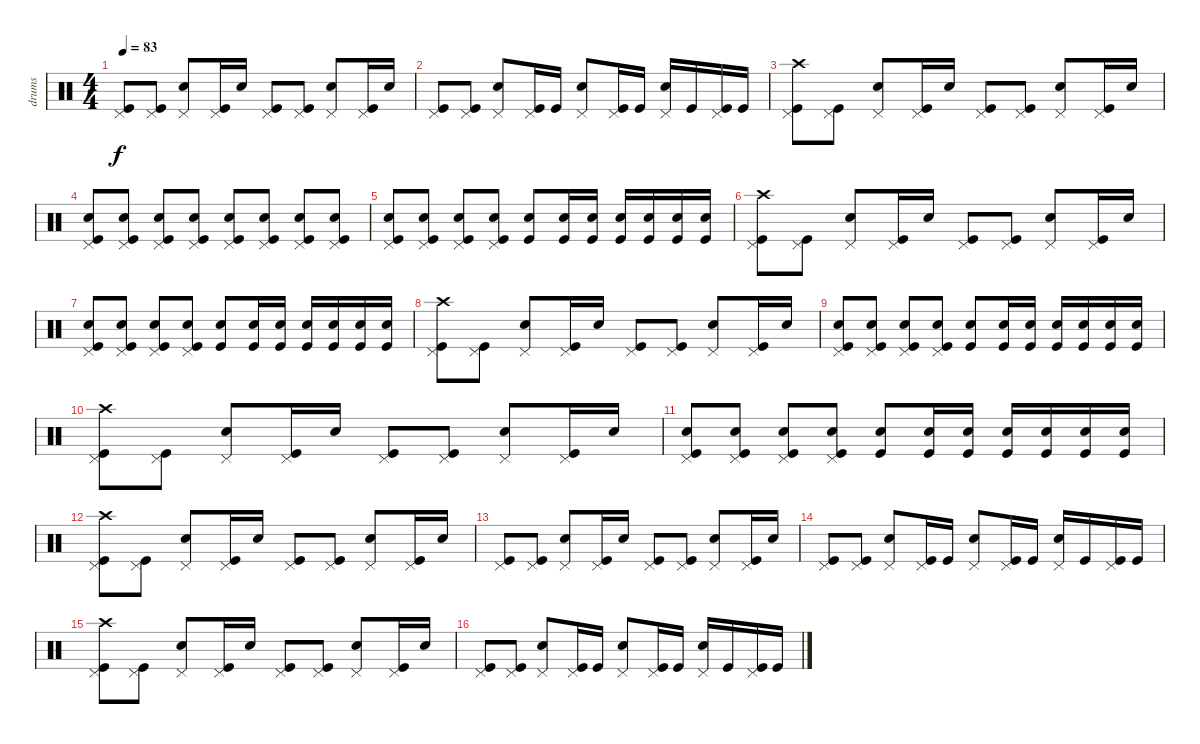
\track ("drums" "drums") {instrument percussion}
\staff {score}
\articulation defaults
\ts (4 4)
\tempo 83
\clef neutral
\ks c
("Pedal Hi-Hat (hit)" "Kick (hit)").8{dy f} ("Pedal Hi-Hat (hit)" "Kick (hit)").8 ("Pedal Hi-Hat (hit)" "Snare (hit) 2").8 ("Pedal Hi-Hat (hit)" "Kick (hit)").16 "Snare (hit) 2".16 ("Pedal Hi-Hat (hit)" "Kick (hit)").8 ("Pedal Hi-Hat (hit)" "Kick (hit)").8 ("Pedal Hi-Hat (hit)" "Snare (hit) 2").8 ("Pedal Hi-Hat (hit)" "Kick (hit)").16 "Snare (hit) 2".16 |
("Pedal Hi-Hat (hit)" "Kick (hit)").8 ("Pedal Hi-Hat (hit)" "Kick (hit)").8 ("Pedal Hi-Hat (hit)" "Snare (hit) 2").8 ("Pedal Hi-Hat (hit)" "Kick (hit)").16 "Kick (hit)".16 ("Pedal Hi-Hat (hit)" "Snare (hit) 2").8 ("Pedal Hi-Hat (hit)" "Kick (hit)").16 "Kick (hit)".16 ("Pedal Hi-Hat (hit)" "Snare (hit) 2").16 "Kick (hit)".16 ("Pedal Hi-Hat (hit)" "Kick (hit)").16 "Kick (hit)".16 |
("Crash high (hit)" "Pedal Hi-Hat (hit)" "Kick (hit)").8 ("Pedal Hi-Hat (hit)" "Kick (hit)").8 ("Pedal Hi-Hat (hit)" "Snare (hit) 2").8 ("Pedal Hi-Hat (hit)" "Kick (hit)").16 "Snare (hit) 2".16 ("Pedal Hi-Hat (hit)" "Kick (hit)").8 ("Pedal Hi-Hat (hit)" "Kick (hit)").8 ("Pedal Hi-Hat (hit)" "Snare (hit) 2").8 ("Pedal Hi-Hat (hit)" "Kick (hit)").16 "Snare (hit) 2".16 |
("Kick (hit)" "Snare (hit) 2" "Pedal Hi-Hat (hit)").8 ("Kick (hit)" "Snare (hit) 2" "Pedal Hi-Hat (hit)").8 ("Kick (hit)" "Pedal Hi-Hat (hit)" "Snare (hit) 2").8 ("Kick (hit)" "Pedal Hi-Hat (hit)" "Snare (hit) 2").8 ("Kick (hit)" "Snare (hit) 2" "Pedal Hi-Hat (hit)").8 ("Kick (hit)" "Snare (hit) 2" "Pedal Hi-Hat (hit)").8 ("Kick (hit)" "Snare (hit) 2" "Pedal Hi-Hat (hit)").8 ("Kick (hit)" "Snare (hit) 2" "Pedal Hi-Hat (hit)").8 |
("Kick (hit)" "Snare (hit) 2" "Pedal Hi-Hat (hit)").8 ("Kick (hit)" "Snare (hit) 2" "Pedal Hi-Hat (hit)").8 ("Kick (hit)" "Pedal Hi-Hat (hit)" "Snare (hit) 2").8 ("Kick (hit)" "Snare (hit) 2" "Pedal Hi-Hat (hit)").8 ("Kick (hit)" "Snare (hit) 2").8 ("Kick (hit)" "Snare (hit) 2").16 ("Kick (hit)" "Snare (hit) 2").16 ("Kick (hit)" "Snare (hit) 2").16 ("Kick (hit)" "Snare (hit) 2").16 ("Kick (hit)" "Snare (hit) 2").16 ("Kick (hit)" "Snare (hit) 2").16 |
("Crash high (hit)" "Pedal Hi-Hat (hit)" "Kick (hit)").8 ("Pedal Hi-Hat (hit)" "Kick (hit)").8 ("Pedal Hi-Hat (hit)" "Snare (hit) 2").8 ("Pedal Hi-Hat (hit)" "Kick (hit)").16 "Snare (hit) 2".16 ("Pedal Hi-Hat (hit)" "Kick (hit)").8 ("Pedal Hi-Hat (hit)" "Kick (hit)").8 ("Pedal Hi-Hat (hit)" "Snare (hit) 2").8 ("Pedal Hi-Hat (hit)" "Kick (hit)").16 "Snare (hit) 2".16 |
("Kick (hit)" "Snare (hit) 2" "Pedal Hi-Hat (hit)").8 ("Kick (hit)" "Snare (hit) 2" "Pedal Hi-Hat (hit)").8 ("Kick (hit)" "Pedal Hi-Hat (hit)" "Snare (hit) 2").8 ("Kick (hit)" "Snare (hit) 2" "Pedal Hi-Hat (hit)").8 ("Kick (hit)" "Snare (hit) 2").8 ("Kick (hit)" "Snare (hit) 2").16 ("Kick (hit)" "Snare (hit) 2").16 ("Kick (hit)" "Snare (hit) 2").16 ("Kick (hit)" "Snare (hit) 2").16 ("Kick (hit)" "Snare (hit) 2").16 ("Kick (hit)" "Snare (hit) 2").16 |
("Crash high (hit)" "Pedal Hi-Hat (hit)" "Kick (hit)").8 ("Pedal Hi-Hat (hit)" "Kick (hit)").8 ("Pedal Hi-Hat (hit)" "Snare (hit) 2").8 ("Pedal Hi-Hat (hit)" "Kick (hit)").16 "Snare (hit) 2".16 ("Pedal Hi-Hat (hit)" "Kick (hit)").8 ("Pedal Hi-Hat (hit)" "Kick (hit)").8 ("Pedal Hi-Hat (hit)" "Snare (hit) 2").8 ("Pedal Hi-Hat (hit)" "Kick (hit)").16 "Snare (hit) 2".16 |
("Kick (hit)" "Snare (hit) 2" "Pedal Hi-Hat (hit)").8 ("Kick (hit)" "Snare (hit) 2" "Pedal Hi-Hat (hit)").8 ("Kick (hit)" "Pedal Hi-Hat (hit)" "Snare (hit) 2").8 ("Kick (hit)" "Snare (hit) 2" "Pedal Hi-Hat (hit)").8 ("Kick (hit)" "Snare (hit) 2").8 ("Kick (hit)" "Snare (hit) 2").16 ("Kick (hit)" "Snare (hit) 2").16 ("Kick (hit)" "Snare (hit) 2").16 ("Kick (hit)" "Snare (hit) 2").16 ("Kick (hit)" "Snare (hit) 2").16 ("Kick (hit)" "Snare (hit) 2").16 |
("Crash high (hit)" "Pedal Hi-Hat (hit)" "Kick (hit)").8 ("Pedal Hi-Hat (hit)" "Kick (hit)").8 ("Pedal Hi-Hat (hit)" "Snare (hit) 2").8 ("Pedal Hi-Hat (hit)" "Kick (hit)").16 "Snare (hit) 2".16 ("Pedal Hi-Hat (hit)" "Kick (hit)").8 ("Pedal Hi-Hat (hit)" "Kick (hit)").8 ("Pedal Hi-Hat (hit)" "Snare (hit) 2").8 ("Pedal Hi-Hat (hit)" "Kick (hit)").16 "Snare (hit) 2".16 |
("Kick (hit)" "Snare (hit) 2" "Pedal Hi-Hat (hit)").8 ("Kick (hit)" "Snare (hit) 2" "Pedal Hi-Hat (hit)").8 ("Kick (hit)" "Pedal Hi-Hat (hit)" "Snare (hit) 2").8 ("Kick (hit)" "Snare (hit) 2" "Pedal Hi-Hat (hit)").8 ("Kick (hit)" "Snare (hit) 2").8 ("Kick (hit)" "Snare (hit) 2").16 ("Kick (hit)" "Snare (hit) 2").16 ("Kick (hit)" "Snare (hit) 2").16 ("Kick (hit)" "Snare (hit) 2").16 ("Kick (hit)" "Snare (hit) 2").16 ("Kick (hit)" "Snare (hit) 2").16 |
("Crash high (hit)" "Pedal Hi-Hat (hit)" "Kick (hit)").8 ("Pedal Hi-Hat (hit)" "Kick (hit)").8 ("Pedal Hi-Hat (hit)" "Snare (hit) 2").8 ("Pedal Hi-Hat (hit)" "Kick (hit)").16 "Snare (hit) 2".16 ("Pedal Hi-Hat (hit)" "Kick (hit)").8 ("Pedal Hi-Hat (hit)" "Kick (hit)").8 ("Pedal Hi-Hat (hit)" "Snare (hit) 2").8 ("Pedal Hi-Hat (hit)" "Kick (hit)").16 "Snare (hit) 2".16 |
("Pedal Hi-Hat (hit)" "Kick (hit)").8 ("Pedal Hi-Hat (hit)" "Kick (hit)").8 ("Pedal Hi-Hat (hit)" "Snare (hit) 2").8 ("Pedal Hi-Hat (hit)" "Kick (hit)").16 "Snare (hit) 2".16 ("Pedal Hi-Hat (hit)" "Kick (hit)").8 ("Pedal Hi-Hat (hit)" "Kick (hit)").8 ("Pedal Hi-Hat (hit)" "Snare (hit) 2").8 ("Pedal Hi-Hat (hit)" "Kick (hit)").16 "Snare (hit) 2".16 |
("Pedal Hi-Hat (hit)" "Kick (hit)").8 ("Pedal Hi-Hat (hit)" "Kick (hit)").8 ("Pedal Hi-Hat (hit)" "Snare (hit) 2").8 ("Pedal Hi-Hat (hit)" "Kick (hit)").16 "Kick (hit)".16 ("Pedal Hi-Hat (hit)" "Snare (hit) 2").8 ("Pedal Hi-Hat (hit)" "Kick (hit)").16 "Kick (hit)".16 ("Pedal Hi-Hat (hit)" "Snare (hit) 2").16 "Kick (hit)".16 ("Pedal Hi-Hat (hit)" "Kick (hit)").16 "Kick (hit)".16 |
("Crash high (hit)" "Pedal Hi-Hat (hit)" "Kick (hit)").8 ("Pedal Hi-Hat (hit)" "Kick (hit)").8 ("Pedal Hi-Hat (hit)" "Snare (hit) 2").8 ("Pedal Hi-Hat (hit)" "Kick (hit)").16 "Snare (hit) 2".16 ("Pedal Hi-Hat (hit)" "Kick (hit)").8 ("Pedal Hi-Hat (hit)" "Kick (hit)").8 ("Pedal Hi-Hat (hit)" "Snare (hit) 2").8 ("Pedal Hi-Hat (hit)" "Kick (hit)").16 "Snare (hit) 2".16 |
("Pedal Hi-Hat (hit)" "Kick (hit)").8 ("Pedal Hi-Hat (hit)" "Kick (hit)").8 ("Pedal Hi-Hat (hit)" "Snare (hit) 2").8 ("Pedal Hi-Hat (hit)" "Kick (hit)").16 "Kick (hit)".16 ("Pedal Hi-Hat (hit)" "Snare (hit) 2").8 ("Pedal Hi-Hat (hit)" "Kick (hit)").16 "Kick (hit)".16 ("Pedal Hi-Hat (hit)" "Snare (hit) 2").16 "Kick (hit)".16 ("Pedal Hi-Hat (hit)" "Kick (hit)").16 "Kick (hit)".16
